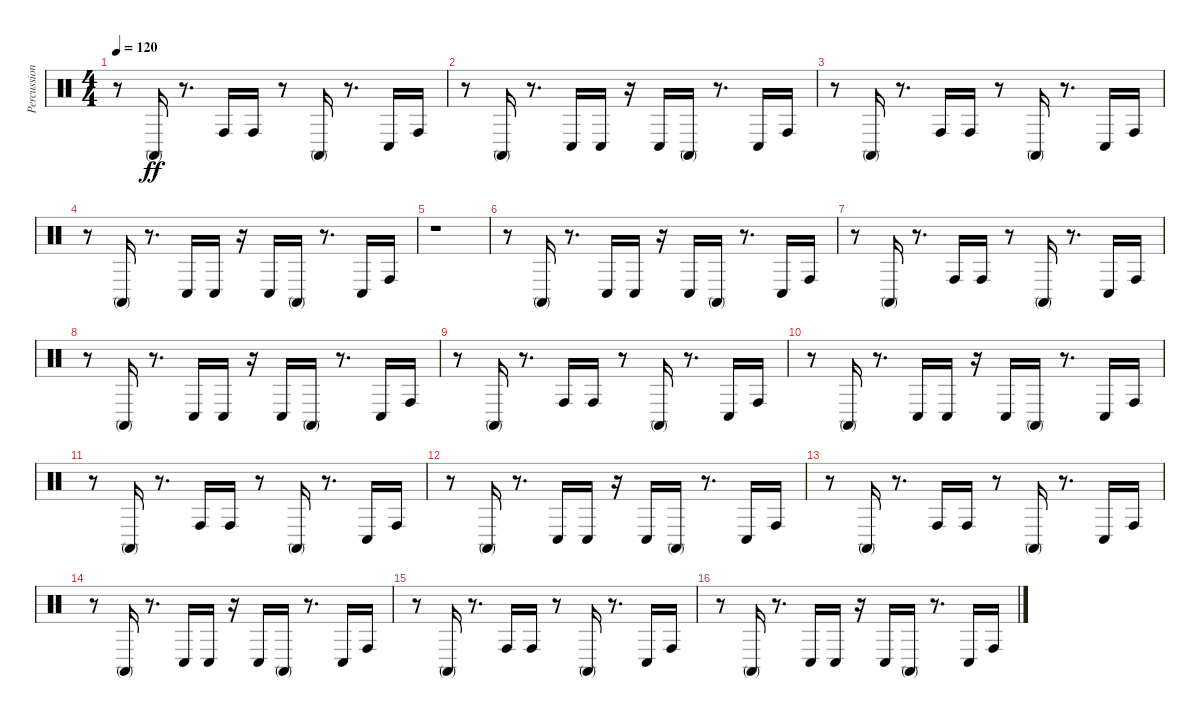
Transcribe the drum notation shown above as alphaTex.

\track ("Percussion" "Percussion") {instrument percussion}
\staff {score}
\articulation defaults
\ts (4 4)
\tempo 120
\clef neutral
\ks c
r.8{dy ff} "Conga high (mute)".16 r.8{d} "Conga high (hit)".16 "Conga high (hit)".16 r.8 "Conga high (mute)".16 r.8{d} "Conga low (hit)".16 "Conga high (hit)".16 |
r.8 "Conga high (mute)".16 r.8{d} "Conga low (hit)".16 "Conga low (hit)".16 r.16 "Conga low (hit)".16 "Conga high (mute)".16 r.8{d} "Conga low (hit)".16 "Conga high (hit)".16 |
r.8 "Conga high (mute)".16 r.8{d} "Conga high (hit)".16 "Conga high (hit)".16 r.8 "Conga high (mute)".16 r.8{d} "Conga low (hit)".16 "Conga high (hit)".16 |
r.8 "Conga high (mute)".16 r.8{d} "Conga low (hit)".16 "Conga low (hit)".16 r.16 "Conga low (hit)".16 "Conga high (mute)".16 r.8{d} "Conga low (hit)".16 "Conga high (hit)".16 |
r.1 |
r.8 "Conga high (mute)".16 r.8{d} "Conga low (hit)".16 "Conga low (hit)".16 r.16 "Conga low (hit)".16 "Conga high (mute)".16 r.8{d} "Conga low (hit)".16 "Conga high (hit)".16 |
r.8 "Conga high (mute)".16 r.8{d} "Conga high (hit)".16 "Conga high (hit)".16 r.8 "Conga high (mute)".16 r.8{d} "Conga low (hit)".16 "Conga high (hit)".16 |
r.8 "Conga high (mute)".16 r.8{d} "Conga low (hit)".16 "Conga low (hit)".16 r.16 "Conga low (hit)".16 "Conga high (mute)".16 r.8{d} "Conga low (hit)".16 "Conga high (hit)".16 |
r.8 "Conga high (mute)".16 r.8{d} "Conga high (hit)".16 "Conga high (hit)".16 r.8 "Conga high (mute)".16 r.8{d} "Conga low (hit)".16 "Conga high (hit)".16 |
r.8 "Conga high (mute)".16 r.8{d} "Conga low (hit)".16 "Conga low (hit)".16 r.16 "Conga low (hit)".16 "Conga high (mute)".16 r.8{d} "Conga low (hit)".16 "Conga high (hit)".16 |
r.8 "Conga high (mute)".16 r.8{d} "Conga high (hit)".16 "Conga high (hit)".16 r.8 "Conga high (mute)".16 r.8{d} "Conga low (hit)".16 "Conga high (hit)".16 |
r.8 "Conga high (mute)".16 r.8{d} "Conga low (hit)".16 "Conga low (hit)".16 r.16 "Conga low (hit)".16 "Conga high (mute)".16 r.8{d} "Conga low (hit)".16 "Conga high (hit)".16 |
r.8 "Conga high (mute)".16 r.8{d} "Conga high (hit)".16 "Conga high (hit)".16 r.8 "Conga high (mute)".16 r.8{d} "Conga low (hit)".16 "Conga high (hit)".16 |
r.8 "Conga high (mute)".16 r.8{d} "Conga low (hit)".16 "Conga low (hit)".16 r.16 "Conga low (hit)".16 "Conga high (mute)".16 r.8{d} "Conga low (hit)".16 "Conga high (hit)".16 |
r.8 "Conga high (mute)".16 r.8{d} "Conga high (hit)".16 "Conga high (hit)".16 r.8 "Conga high (mute)".16 r.8{d} "Conga low (hit)".16 "Conga high (hit)".16 |
r.8 "Conga high (mute)".16 r.8{d} "Conga low (hit)".16 "Conga low (hit)".16 r.16 "Conga low (hit)".16 "Conga high (mute)".16 r.8{d} "Conga low (hit)".16 "Conga high (hit)".16
